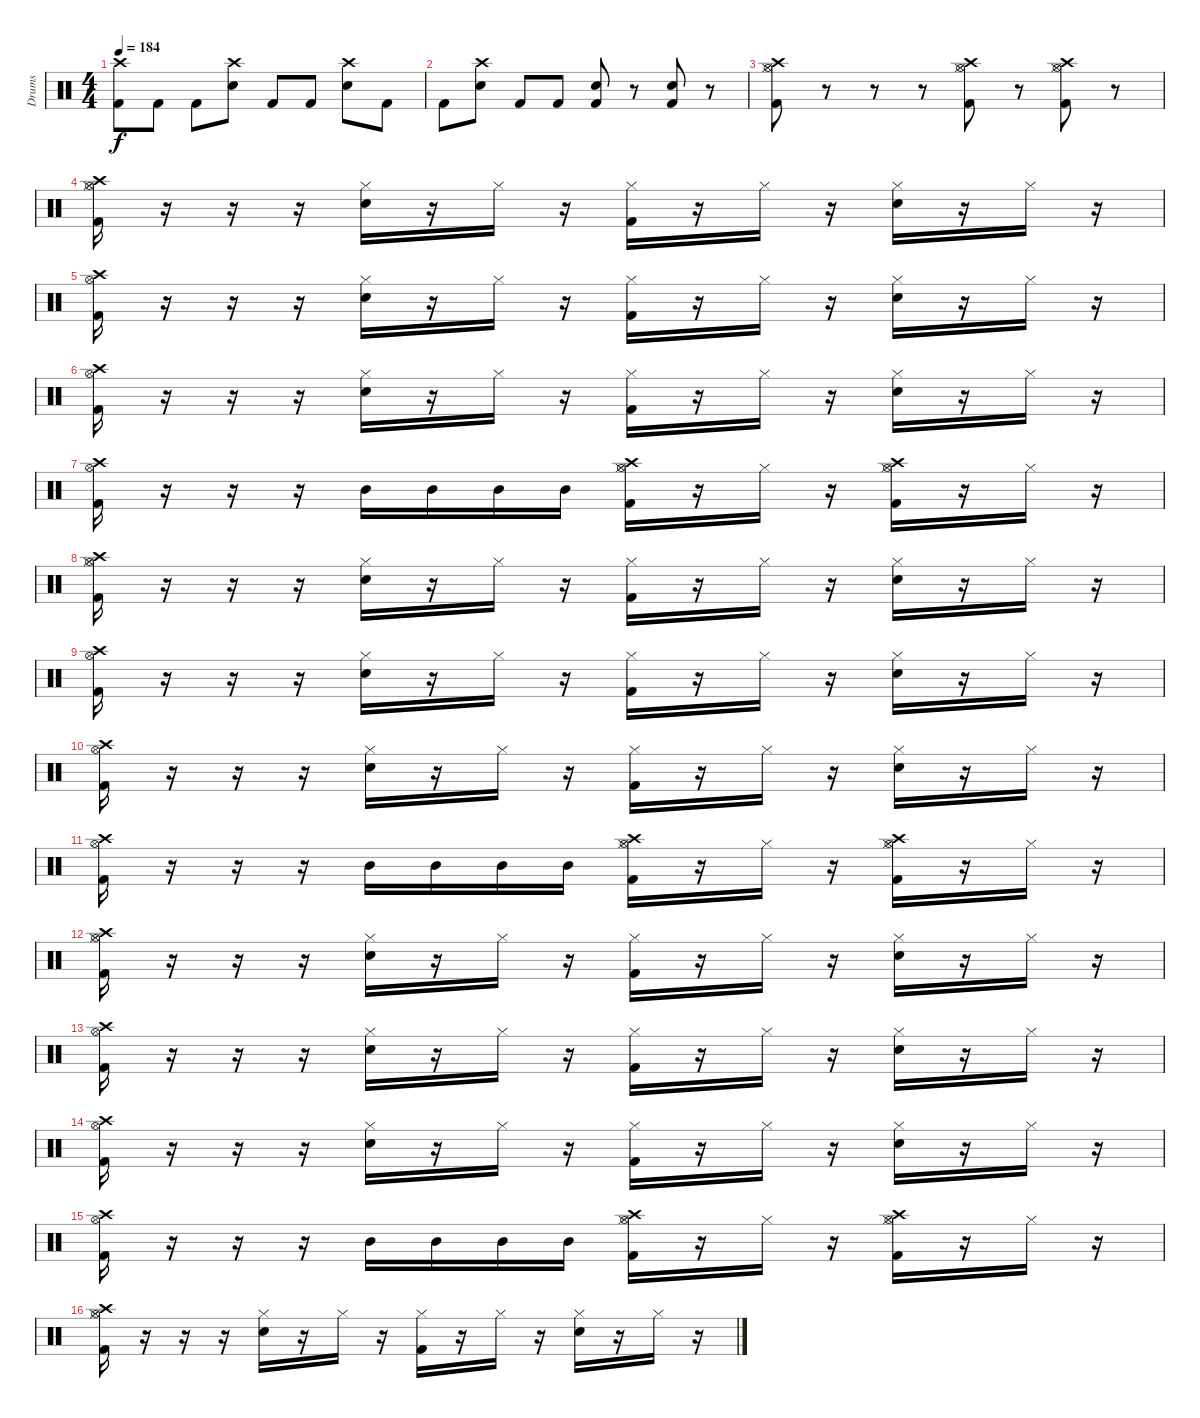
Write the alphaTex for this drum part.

\track ("Drums" "Drums") {instrument percussion}
\staff {score}
\articulation defaults
\ts (4 4)
\tempo 184
\clef neutral
\ks c
("Kick (hit) 2" "Crash high (hit)").8{dy f} "Kick (hit) 2".8 "Kick (hit) 2".8 ("Crash high (hit)" "Electric Snare (hit)").8 "Kick (hit) 2".8 "Kick (hit) 2".8 ("Crash high (hit)" "Electric Snare (hit)").8 "Kick (hit) 2".8 |
"Kick (hit) 2".8 ("Crash high (hit)" "Electric Snare (hit)").8 "Kick (hit) 2".8 "Kick (hit) 2".8 ("Snare (hit) 2" "Kick (hit) 2").8 r.8 ("Snare (hit) 2" "Kick (hit) 2").8 r.8 |
("Kick (hit) 2" "Hi-Hat (closed)" "Hi-Hat (open)" "Crash high (hit)").8 r.8 r.8 r.8 ("Kick (hit) 2" "Hi-Hat (closed)" "Hi-Hat (open)" "Crash high (hit)").8 r.8 ("Kick (hit) 2" "Hi-Hat (closed)" "Hi-Hat (open)" "Crash high (hit)").8 r.8 |
("Kick (hit) 2" "Hi-Hat (closed)" "Hi-Hat (open)" "Crash high (hit)").16 r.16 r.16 r.16 ("Electric Snare (hit)" "Hi-Hat (closed)").16 r.16 "Hi-Hat (closed)".16 r.16 ("Kick (hit) 2" "Hi-Hat (closed)").16 r.16 "Hi-Hat (closed)".16 r.16 ("Electric Snare (hit)" "Hi-Hat (closed)").16 r.16 "Hi-Hat (closed)".16 r.16 |
("Kick (hit) 2" "Hi-Hat (open)" "Crash high (hit)").16 r.16 r.16 r.16 ("Electric Snare (hit)" "Hi-Hat (closed)").16 r.16 "Hi-Hat (closed)".16 r.16 ("Kick (hit) 2" "Hi-Hat (closed)").16 r.16 "Hi-Hat (closed)".16 r.16 ("Electric Snare (hit)" "Hi-Hat (closed)").16 r.16 "Hi-Hat (closed)".16 r.16 |
("Kick (hit) 2" "Hi-Hat (open)" "Crash high (hit)").16 r.16 r.16 r.16 ("Electric Snare (hit)" "Hi-Hat (closed)").16 r.16 "Hi-Hat (closed)".16 r.16 ("Kick (hit) 2" "Hi-Hat (closed)").16 r.16 "Hi-Hat (closed)".16 r.16 ("Electric Snare (hit)" "Hi-Hat (closed)").16 r.16 "Hi-Hat (closed)".16 r.16 |
("Kick (hit) 2" "Hi-Hat (open)" "Crash high (hit)").16 r.16 r.16 r.16 "Mid Tom (hit)".16 "Mid Tom (hit)".16 "Mid Tom (hit)".16 "Mid Tom (hit)".16 ("Kick (hit) 2" "Hi-Hat (closed)" "Hi-Hat (open)" "Crash high (hit)").16 r.16 "Hi-Hat (closed)".16 r.16 ("Kick (hit) 2" "Hi-Hat (closed)" "Hi-Hat (open)" "Crash high (hit)").16 r.16 "Hi-Hat (closed)".16 r.16 |
("Kick (hit) 2" "Hi-Hat (closed)" "Hi-Hat (open)" "Crash high (hit)").16 r.16 r.16 r.16 ("Electric Snare (hit)" "Hi-Hat (closed)").16 r.16 "Hi-Hat (closed)".16 r.16 ("Kick (hit) 2" "Hi-Hat (closed)").16 r.16 "Hi-Hat (closed)".16 r.16 ("Electric Snare (hit)" "Hi-Hat (closed)").16 r.16 "Hi-Hat (closed)".16 r.16 |
("Kick (hit) 2" "Hi-Hat (open)" "Crash high (hit)").16 r.16 r.16 r.16 ("Electric Snare (hit)" "Hi-Hat (closed)").16 r.16 "Hi-Hat (closed)".16 r.16 ("Kick (hit) 2" "Hi-Hat (closed)").16 r.16 "Hi-Hat (closed)".16 r.16 ("Electric Snare (hit)" "Hi-Hat (closed)").16 r.16 "Hi-Hat (closed)".16 r.16 |
("Kick (hit) 2" "Hi-Hat (open)" "Crash high (hit)").16 r.16 r.16 r.16 ("Electric Snare (hit)" "Hi-Hat (closed)").16 r.16 "Hi-Hat (closed)".16 r.16 ("Kick (hit) 2" "Hi-Hat (closed)").16 r.16 "Hi-Hat (closed)".16 r.16 ("Electric Snare (hit)" "Hi-Hat (closed)").16 r.16 "Hi-Hat (closed)".16 r.16 |
("Kick (hit) 2" "Hi-Hat (open)" "Crash high (hit)").16 r.16 r.16 r.16 "Mid Tom (hit)".16 "Mid Tom (hit)".16 "Mid Tom (hit)".16 "Mid Tom (hit)".16 ("Kick (hit) 2" "Hi-Hat (closed)" "Hi-Hat (open)" "Crash high (hit)").16 r.16 "Hi-Hat (closed)".16 r.16 ("Kick (hit) 2" "Hi-Hat (closed)" "Hi-Hat (open)" "Crash high (hit)").16 r.16 "Hi-Hat (closed)".16 r.16 |
("Kick (hit) 2" "Hi-Hat (closed)" "Hi-Hat (open)" "Crash high (hit)").16 r.16 r.16 r.16 ("Electric Snare (hit)" "Hi-Hat (closed)").16 r.16 "Hi-Hat (closed)".16 r.16 ("Kick (hit) 2" "Hi-Hat (closed)").16 r.16 "Hi-Hat (closed)".16 r.16 ("Electric Snare (hit)" "Hi-Hat (closed)").16 r.16 "Hi-Hat (closed)".16 r.16 |
("Kick (hit) 2" "Hi-Hat (open)" "Crash high (hit)").16 r.16 r.16 r.16 ("Electric Snare (hit)" "Hi-Hat (closed)").16 r.16 "Hi-Hat (closed)".16 r.16 ("Kick (hit) 2" "Hi-Hat (closed)").16 r.16 "Hi-Hat (closed)".16 r.16 ("Electric Snare (hit)" "Hi-Hat (closed)").16 r.16 "Hi-Hat (closed)".16 r.16 |
("Kick (hit) 2" "Hi-Hat (open)" "Crash high (hit)").16 r.16 r.16 r.16 ("Electric Snare (hit)" "Hi-Hat (closed)").16 r.16 "Hi-Hat (closed)".16 r.16 ("Kick (hit) 2" "Hi-Hat (closed)").16 r.16 "Hi-Hat (closed)".16 r.16 ("Electric Snare (hit)" "Hi-Hat (closed)").16 r.16 "Hi-Hat (closed)".16 r.16 |
("Kick (hit) 2" "Hi-Hat (open)" "Crash high (hit)").16 r.16 r.16 r.16 "Mid Tom (hit)".16 "Mid Tom (hit)".16 "Mid Tom (hit)".16 "Mid Tom (hit)".16 ("Kick (hit) 2" "Hi-Hat (closed)" "Hi-Hat (open)" "Crash high (hit)").16 r.16 "Hi-Hat (closed)".16 r.16 ("Kick (hit) 2" "Hi-Hat (closed)" "Hi-Hat (open)" "Crash high (hit)").16 r.16 "Hi-Hat (closed)".16 r.16 |
("Kick (hit) 2" "Hi-Hat (closed)" "Hi-Hat (open)" "Crash high (hit)").16 r.16 r.16 r.16 ("Electric Snare (hit)" "Hi-Hat (closed)").16 r.16 "Hi-Hat (closed)".16 r.16 ("Kick (hit) 2" "Hi-Hat (closed)").16 r.16 "Hi-Hat (closed)".16 r.16 ("Electric Snare (hit)" "Hi-Hat (closed)").16 r.16 "Hi-Hat (closed)".16 r.16
